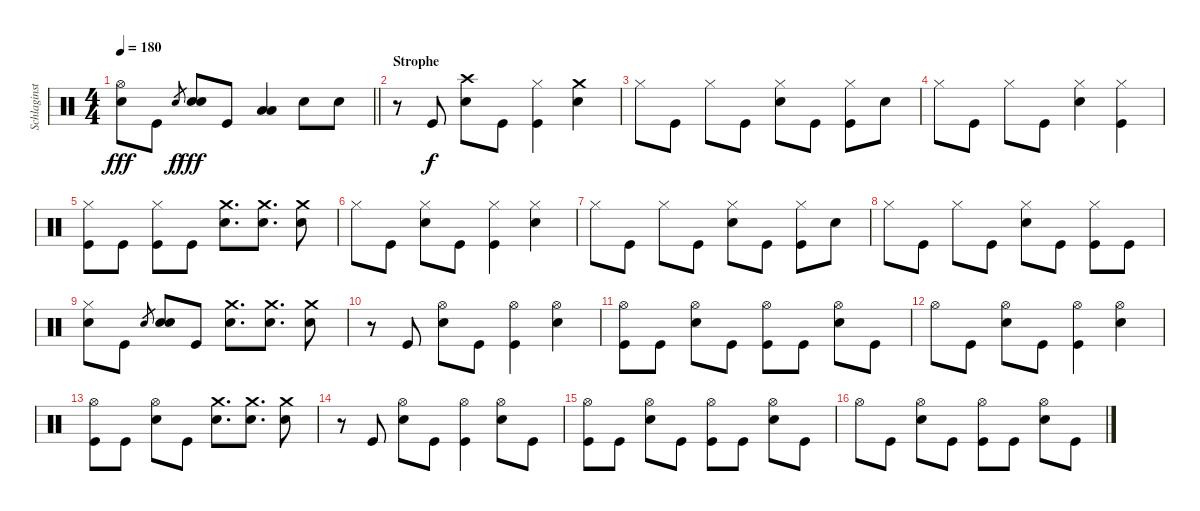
\track ("Schlaginstrumente - Auswahl" "Schlaginst") {instrument percussion}
\staff {score}
\articulation defaults
\ts (4 4)
\tempo 180
\clef neutral
\barLineRight lightlight
\ks c
("Snare (hit) 2" "Hi-Hat (open)").8{dy fff} "Kick (hit)".8 "Electric Snare (hit)".8{gr dy f} ("Snare (hit) 2" "Electric Snare (hit)").8{dy fff} "Kick (hit)".8 ("Low Tom (hit)" "Low Floor Tom (hit)").4 "Snare (hit) 2".8 "Snare (hit) 2".8 |
\section ("" "Strophe")
r.8 "Kick (hit)".8{dy f} ("Crash high (hit)" "Snare (hit) 2").8 "Kick (hit)".8 ("Hi-Hat (closed)" "Kick (hit)").4 ("Crash medium (hit)" "Snare (hit) 2").4 |
"Hi-Hat (closed)".8 "Kick (hit)".8 "Hi-Hat (closed)".8 "Kick (hit)".8 ("Snare (hit) 2" "Hi-Hat (closed)").8 "Kick (hit)".8 ("Kick (hit)" "Hi-Hat (closed)").8 "Snare (hit) 2".8 |
"Hi-Hat (closed)".8 "Kick (hit)".8 "Hi-Hat (closed)".8 "Kick (hit)".8 ("Snare (hit) 2" "Hi-Hat (closed)").4 ("Kick (hit)" "Hi-Hat (closed)").4 |
("Hi-Hat (closed)" "Kick (hit)").8 "Kick (hit)".8 ("Kick (hit)" "Hi-Hat (closed)").8 "Kick (hit)".8 ("Snare (hit) 2" "Crash medium (hit)").8{d} ("Snare (hit) 2" "Crash medium (hit)").8{d} ("Snare (hit) 2" "Crash medium (hit)").8 |
"Hi-Hat (closed)".8 "Kick (hit)".8 ("Hi-Hat (closed)" "Snare (hit) 2").8 "Kick (hit)".8 ("Hi-Hat (closed)" "Kick (hit)").4 ("Hi-Hat (closed)" "Snare (hit) 2").4 |
"Hi-Hat (closed)".8 "Kick (hit)".8 "Hi-Hat (closed)".8 "Kick (hit)".8 ("Snare (hit) 2" "Hi-Hat (closed)").8 "Kick (hit)".8 ("Kick (hit)" "Hi-Hat (closed)").8 "Snare (hit) 2".8 |
"Hi-Hat (closed)".8 "Kick (hit)".8 "Hi-Hat (closed)".8 "Kick (hit)".8 ("Snare (hit) 2" "Hi-Hat (closed)").8 "Kick (hit)".8 ("Kick (hit)" "Hi-Hat (closed)").8 "Kick (hit)".8 |
("Hi-Hat (closed)" "Snare (hit) 2").8 "Kick (hit)".8 "Electric Snare (hit)".8{gr} ("Snare (hit) 2" "Electric Snare (hit)").8 "Kick (hit)".8 ("Snare (hit) 2" "Crash medium (hit)").8{d} ("Snare (hit) 2" "Crash medium (hit)").8{d} ("Snare (hit) 2" "Crash medium (hit)").8 |
r.8 "Kick (hit)".8 ("Hi-Hat (open)" "Snare (hit) 2").8 "Kick (hit)".8 ("Hi-Hat (open)" "Kick (hit)").4 ("Hi-Hat (open)" "Snare (hit) 2").4 |
("Hi-Hat (open)" "Kick (hit)").8 "Kick (hit)".8 ("Hi-Hat (open)" "Snare (hit) 2").8 "Kick (hit)".8 ("Hi-Hat (open)" "Kick (hit)").8 "Kick (hit)".8 ("Snare (hit) 2" "Hi-Hat (open)").8 "Kick (hit)".8 |
"Hi-Hat (open)".8 "Kick (hit)".8 ("Hi-Hat (open)" "Snare (hit) 2").8 "Kick (hit)".8 ("Hi-Hat (open)" "Kick (hit)").4 ("Hi-Hat (open)" "Snare (hit) 2").4 |
("Hi-Hat (open)" "Kick (hit)").8 "Kick (hit)".8 ("Snare (hit) 2" "Hi-Hat (open)").8 "Kick (hit)".8 ("Snare (hit) 2" "Crash medium (hit)").8{d} ("Snare (hit) 2" "Crash medium (hit)").8{d} ("Snare (hit) 2" "Crash medium (hit)").8 |
r.8 "Kick (hit)".8 ("Hi-Hat (open)" "Snare (hit) 2").8 "Kick (hit)".8 ("Hi-Hat (open)" "Kick (hit)").4 ("Snare (hit) 2" "Hi-Hat (open)").8 "Kick (hit)".8 |
("Hi-Hat (open)" "Kick (hit)").8 "Kick (hit)".8 ("Hi-Hat (open)" "Snare (hit) 2").8 "Kick (hit)".8 ("Hi-Hat (open)" "Kick (hit)").8 "Kick (hit)".8 ("Snare (hit) 2" "Hi-Hat (open)").8 "Kick (hit)".8 |
"Hi-Hat (open)".8 "Kick (hit)".8 ("Hi-Hat (open)" "Snare (hit) 2").8 "Kick (hit)".8 ("Hi-Hat (open)" "Kick (hit)").8 "Kick (hit)".8 ("Hi-Hat (open)" "Snare (hit) 2").8 "Kick (hit)".8
